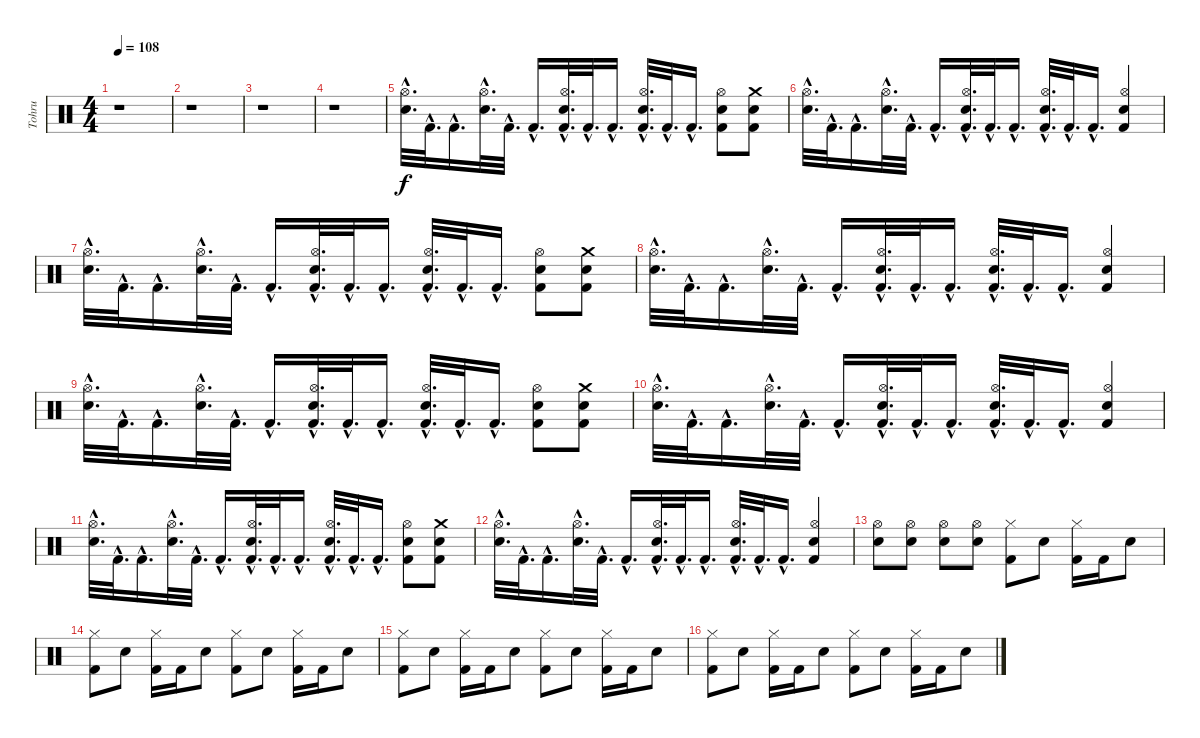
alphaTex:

\track ("Tohru" "Tohru") {instrument percussion}
\staff {score}
\articulation defaults
\ts (4 4)
\tempo 108
\clef neutral
\ks c
r.1{dy f} |
r.1 |
r.1 |
r.1 |
("Electric Snare (hit)"{hac} "Hi-Hat (open)"{hac}).32{d} "Kick (hit) 2"{hac}.32{d} "Kick (hit) 2"{hac}.16{d} ("Electric Snare (hit)"{hac} "Hi-Hat (open)"{hac}).32{d} "Kick (hit) 2"{hac}.32{d} "Kick (hit) 2"{hac}.16{d} ("Electric Snare (hit)"{hac} "Kick (hit) 2"{hac} "Hi-Hat (open)"{hac}).32{d} "Kick (hit) 2"{hac}.32{d} "Kick (hit) 2"{hac}.16{d} ("Electric Snare (hit)"{hac} "Kick (hit) 2"{hac} "Hi-Hat (open)"{hac}).32{d} "Kick (hit) 2"{hac}.32{d} "Kick (hit) 2"{hac}.16{d} ("Electric Snare (hit)" "Kick (hit) 2" "Hi-Hat (open)").8 ("Electric Snare (hit)" "Kick (hit) 2" "Crash medium (hit)").8 |
("Electric Snare (hit)"{hac} "Hi-Hat (open)"{hac}).32{d} "Kick (hit) 2"{hac}.32{d} "Kick (hit) 2"{hac}.16{d} ("Electric Snare (hit)"{hac} "Hi-Hat (open)"{hac}).32{d} "Kick (hit) 2"{hac}.32{d} "Kick (hit) 2"{hac}.16{d} ("Electric Snare (hit)"{hac} "Kick (hit) 2"{hac} "Hi-Hat (open)"{hac}).32{d} "Kick (hit) 2"{hac}.32{d} "Kick (hit) 2"{hac}.16{d} ("Electric Snare (hit)"{hac} "Kick (hit) 2"{hac} "Hi-Hat (open)"{hac}).32{d} "Kick (hit) 2"{hac}.32{d} "Kick (hit) 2"{hac}.16{d} ("Electric Snare (hit)" "Kick (hit) 2" "Hi-Hat (open)").4 |
("Electric Snare (hit)"{hac} "Hi-Hat (open)"{hac}).32{d} "Kick (hit) 2"{hac}.32{d} "Kick (hit) 2"{hac}.16{d} ("Electric Snare (hit)"{hac} "Hi-Hat (open)"{hac}).32{d} "Kick (hit) 2"{hac}.32{d} "Kick (hit) 2"{hac}.16{d} ("Electric Snare (hit)"{hac} "Kick (hit) 2"{hac} "Hi-Hat (open)"{hac}).32{d} "Kick (hit) 2"{hac}.32{d} "Kick (hit) 2"{hac}.16{d} ("Electric Snare (hit)"{hac} "Kick (hit) 2"{hac} "Hi-Hat (open)"{hac}).32{d} "Kick (hit) 2"{hac}.32{d} "Kick (hit) 2"{hac}.16{d} ("Electric Snare (hit)" "Kick (hit) 2" "Hi-Hat (open)").8 ("Electric Snare (hit)" "Kick (hit) 2" "Crash medium (hit)").8 |
("Electric Snare (hit)"{hac} "Hi-Hat (open)"{hac}).32{d} "Kick (hit) 2"{hac}.32{d} "Kick (hit) 2"{hac}.16{d} ("Electric Snare (hit)"{hac} "Hi-Hat (open)"{hac}).32{d} "Kick (hit) 2"{hac}.32{d} "Kick (hit) 2"{hac}.16{d} ("Electric Snare (hit)"{hac} "Kick (hit) 2"{hac} "Hi-Hat (open)"{hac}).32{d} "Kick (hit) 2"{hac}.32{d} "Kick (hit) 2"{hac}.16{d} ("Electric Snare (hit)"{hac} "Kick (hit) 2"{hac} "Hi-Hat (open)"{hac}).32{d} "Kick (hit) 2"{hac}.32{d} "Kick (hit) 2"{hac}.16{d} ("Electric Snare (hit)" "Kick (hit) 2" "Hi-Hat (open)").4 |
("Electric Snare (hit)"{hac} "Hi-Hat (open)"{hac}).32{d} "Kick (hit) 2"{hac}.32{d} "Kick (hit) 2"{hac}.16{d} ("Electric Snare (hit)"{hac} "Hi-Hat (open)"{hac}).32{d} "Kick (hit) 2"{hac}.32{d} "Kick (hit) 2"{hac}.16{d} ("Electric Snare (hit)"{hac} "Kick (hit) 2"{hac} "Hi-Hat (open)"{hac}).32{d} "Kick (hit) 2"{hac}.32{d} "Kick (hit) 2"{hac}.16{d} ("Electric Snare (hit)"{hac} "Kick (hit) 2"{hac} "Hi-Hat (open)"{hac}).32{d} "Kick (hit) 2"{hac}.32{d} "Kick (hit) 2"{hac}.16{d} ("Electric Snare (hit)" "Kick (hit) 2" "Hi-Hat (open)").8 ("Electric Snare (hit)" "Kick (hit) 2" "Crash medium (hit)").8 |
("Electric Snare (hit)"{hac} "Hi-Hat (open)"{hac}).32{d} "Kick (hit) 2"{hac}.32{d} "Kick (hit) 2"{hac}.16{d} ("Electric Snare (hit)"{hac} "Hi-Hat (open)"{hac}).32{d} "Kick (hit) 2"{hac}.32{d} "Kick (hit) 2"{hac}.16{d} ("Electric Snare (hit)"{hac} "Kick (hit) 2"{hac} "Hi-Hat (open)"{hac}).32{d} "Kick (hit) 2"{hac}.32{d} "Kick (hit) 2"{hac}.16{d} ("Electric Snare (hit)"{hac} "Kick (hit) 2"{hac} "Hi-Hat (open)"{hac}).32{d} "Kick (hit) 2"{hac}.32{d} "Kick (hit) 2"{hac}.16{d} ("Electric Snare (hit)" "Kick (hit) 2" "Hi-Hat (open)").4 |
("Electric Snare (hit)"{hac} "Hi-Hat (open)"{hac}).32{d} "Kick (hit) 2"{hac}.32{d} "Kick (hit) 2"{hac}.16{d} ("Electric Snare (hit)"{hac} "Hi-Hat (open)"{hac}).32{d} "Kick (hit) 2"{hac}.32{d} "Kick (hit) 2"{hac}.16{d} ("Electric Snare (hit)"{hac} "Kick (hit) 2"{hac} "Hi-Hat (open)"{hac}).32{d} "Kick (hit) 2"{hac}.32{d} "Kick (hit) 2"{hac}.16{d} ("Electric Snare (hit)"{hac} "Kick (hit) 2"{hac} "Hi-Hat (open)"{hac}).32{d} "Kick (hit) 2"{hac}.32{d} "Kick (hit) 2"{hac}.16{d} ("Electric Snare (hit)" "Kick (hit) 2" "Hi-Hat (open)").8 ("Electric Snare (hit)" "Kick (hit) 2" "Crash medium (hit)").8 |
("Electric Snare (hit)"{hac} "Hi-Hat (open)"{hac}).32{d} "Kick (hit) 2"{hac}.32{d} "Kick (hit) 2"{hac}.16{d} ("Electric Snare (hit)"{hac} "Hi-Hat (open)"{hac}).32{d} "Kick (hit) 2"{hac}.32{d} "Kick (hit) 2"{hac}.16{d} ("Electric Snare (hit)"{hac} "Kick (hit) 2"{hac} "Hi-Hat (open)"{hac}).32{d} "Kick (hit) 2"{hac}.32{d} "Kick (hit) 2"{hac}.16{d} ("Electric Snare (hit)"{hac} "Kick (hit) 2"{hac} "Hi-Hat (open)"{hac}).32{d} "Kick (hit) 2"{hac}.32{d} "Kick (hit) 2"{hac}.16{d} ("Electric Snare (hit)" "Kick (hit) 2" "Hi-Hat (open)").4 |
("Hi-Hat (open)" "Electric Snare (hit)").8 ("Hi-Hat (open)" "Electric Snare (hit)").8 ("Hi-Hat (open)" "Electric Snare (hit)").8 ("Hi-Hat (open)" "Electric Snare (hit)").8 ("Hi-Hat (closed)" "Kick (hit) 2").8 "Electric Snare (hit)".8 ("Hi-Hat (closed)" "Kick (hit) 2").16 "Kick (hit) 2".16 "Electric Snare (hit)".8 |
("Hi-Hat (closed)" "Kick (hit) 2").8 "Electric Snare (hit)".8 ("Hi-Hat (closed)" "Kick (hit) 2").16 "Kick (hit) 2".16 "Electric Snare (hit)".8 ("Hi-Hat (closed)" "Kick (hit) 2").8 "Electric Snare (hit)".8 ("Hi-Hat (closed)" "Kick (hit) 2").16 "Kick (hit) 2".16 "Electric Snare (hit)".8 |
("Hi-Hat (closed)" "Kick (hit) 2").8 "Electric Snare (hit)".8 ("Hi-Hat (closed)" "Kick (hit) 2").16 "Kick (hit) 2".16 "Electric Snare (hit)".8 ("Hi-Hat (closed)" "Kick (hit) 2").8 "Electric Snare (hit)".8 ("Hi-Hat (closed)" "Kick (hit) 2").16 "Kick (hit) 2".16 "Electric Snare (hit)".8 |
("Hi-Hat (closed)" "Kick (hit) 2").8 "Electric Snare (hit)".8 ("Hi-Hat (closed)" "Kick (hit) 2").16 "Kick (hit) 2".16 "Electric Snare (hit)".8 ("Hi-Hat (closed)" "Kick (hit) 2").8 "Electric Snare (hit)".8 ("Hi-Hat (closed)" "Kick (hit) 2").16 "Kick (hit) 2".16 "Electric Snare (hit)".8
